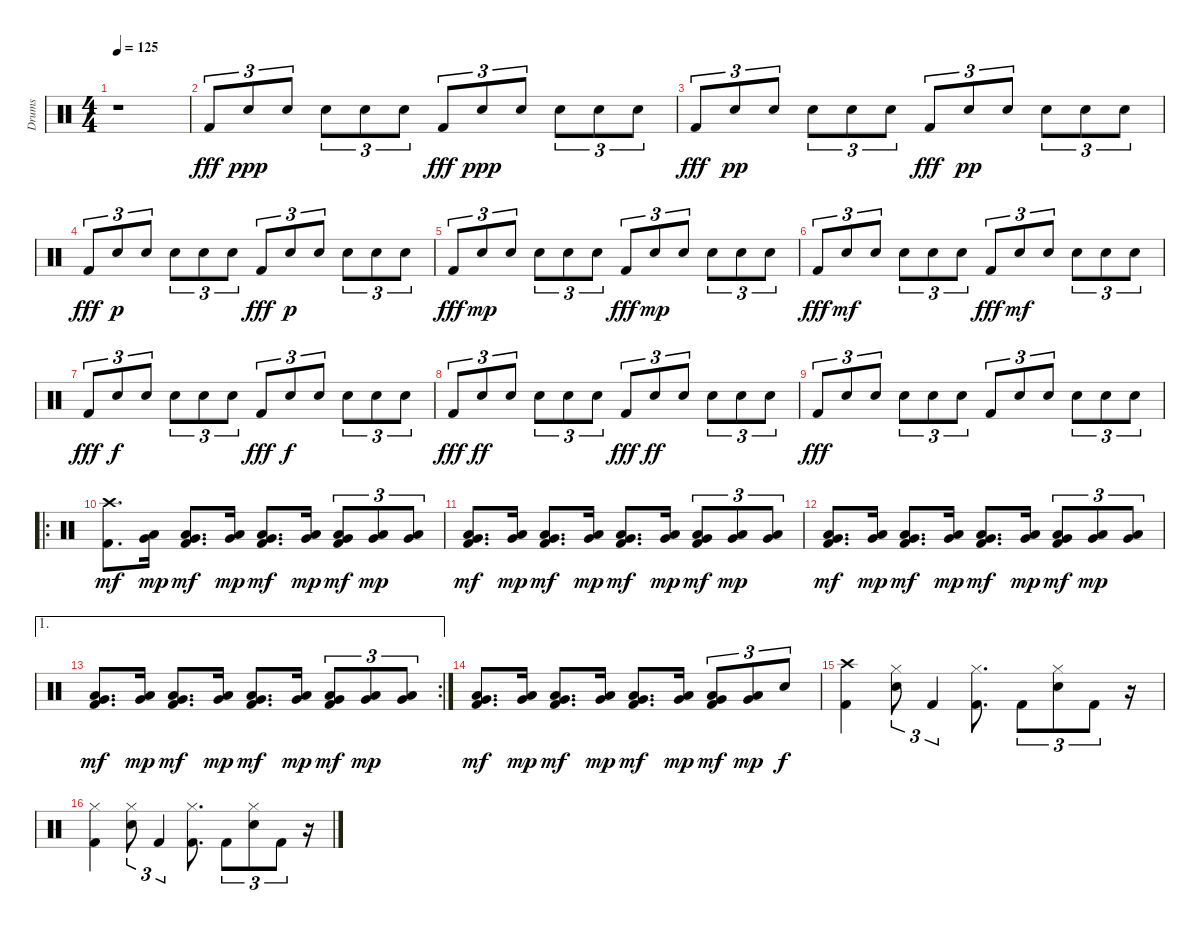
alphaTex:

\track ("Drums" "Drums") {instrument percussion}
\staff {score}
\articulation defaults
\ts (4 4)
\tempo 125
\clef neutral
\ks c
r.1{dy mp} |
"Kick (hit) 2".8{tu (3 2) dy fff volume 13} "Electric Snare (hit)".8{tu (3 2) dy ppp} "Electric Snare (hit)".8{tu (3 2)} "Electric Snare (hit)".8{tu (3 2)} "Electric Snare (hit)".8{tu (3 2)} "Electric Snare (hit)".8{tu (3 2)} "Kick (hit) 2".8{tu (3 2) dy fff} "Electric Snare (hit)".8{tu (3 2) dy ppp} "Electric Snare (hit)".8{tu (3 2)} "Electric Snare (hit)".8{tu (3 2)} "Electric Snare (hit)".8{tu (3 2)} "Electric Snare (hit)".8{tu (3 2)} |
"Kick (hit) 2".8{tu (3 2) dy fff} "Electric Snare (hit)".8{tu (3 2) dy pp} "Electric Snare (hit)".8{tu (3 2)} "Electric Snare (hit)".8{tu (3 2)} "Electric Snare (hit)".8{tu (3 2)} "Electric Snare (hit)".8{tu (3 2)} "Kick (hit) 2".8{tu (3 2) dy fff} "Electric Snare (hit)".8{tu (3 2) dy pp} "Electric Snare (hit)".8{tu (3 2)} "Electric Snare (hit)".8{tu (3 2)} "Electric Snare (hit)".8{tu (3 2)} "Electric Snare (hit)".8{tu (3 2)} |
"Kick (hit) 2".8{tu (3 2) dy fff} "Electric Snare (hit)".8{tu (3 2) dy p} "Electric Snare (hit)".8{tu (3 2)} "Electric Snare (hit)".8{tu (3 2)} "Electric Snare (hit)".8{tu (3 2)} "Electric Snare (hit)".8{tu (3 2)} "Kick (hit) 2".8{tu (3 2) dy fff} "Electric Snare (hit)".8{tu (3 2) dy p} "Electric Snare (hit)".8{tu (3 2)} "Electric Snare (hit)".8{tu (3 2)} "Electric Snare (hit)".8{tu (3 2)} "Electric Snare (hit)".8{tu (3 2)} |
"Kick (hit) 2".8{tu (3 2) dy fff} "Electric Snare (hit)".8{tu (3 2) dy mp} "Electric Snare (hit)".8{tu (3 2)} "Electric Snare (hit)".8{tu (3 2)} "Electric Snare (hit)".8{tu (3 2)} "Electric Snare (hit)".8{tu (3 2)} "Kick (hit) 2".8{tu (3 2) dy fff} "Electric Snare (hit)".8{tu (3 2) dy mp} "Electric Snare (hit)".8{tu (3 2)} "Electric Snare (hit)".8{tu (3 2)} "Electric Snare (hit)".8{tu (3 2)} "Electric Snare (hit)".8{tu (3 2)} |
"Kick (hit) 2".8{tu (3 2) dy fff} "Electric Snare (hit)".8{tu (3 2) dy mf} "Electric Snare (hit)".8{tu (3 2)} "Electric Snare (hit)".8{tu (3 2)} "Electric Snare (hit)".8{tu (3 2)} "Electric Snare (hit)".8{tu (3 2)} "Kick (hit) 2".8{tu (3 2) dy fff} "Electric Snare (hit)".8{tu (3 2) dy mf} "Electric Snare (hit)".8{tu (3 2)} "Electric Snare (hit)".8{tu (3 2)} "Electric Snare (hit)".8{tu (3 2)} "Electric Snare (hit)".8{tu (3 2)} |
"Kick (hit) 2".8{tu (3 2) dy fff} "Electric Snare (hit)".8{tu (3 2) dy f} "Electric Snare (hit)".8{tu (3 2)} "Electric Snare (hit)".8{tu (3 2)} "Electric Snare (hit)".8{tu (3 2)} "Electric Snare (hit)".8{tu (3 2)} "Kick (hit) 2".8{tu (3 2) dy fff} "Electric Snare (hit)".8{tu (3 2) dy f} "Electric Snare (hit)".8{tu (3 2)} "Electric Snare (hit)".8{tu (3 2)} "Electric Snare (hit)".8{tu (3 2)} "Electric Snare (hit)".8{tu (3 2)} |
"Kick (hit) 2".8{tu (3 2) dy fff} "Electric Snare (hit)".8{tu (3 2) dy ff} "Electric Snare (hit)".8{tu (3 2)} "Electric Snare (hit)".8{tu (3 2)} "Electric Snare (hit)".8{tu (3 2)} "Electric Snare (hit)".8{tu (3 2)} "Kick (hit) 2".8{tu (3 2) dy fff} "Electric Snare (hit)".8{tu (3 2) dy ff} "Electric Snare (hit)".8{tu (3 2)} "Electric Snare (hit)".8{tu (3 2)} "Electric Snare (hit)".8{tu (3 2)} "Electric Snare (hit)".8{tu (3 2)} |
"Kick (hit) 2".8{tu (3 2) dy fff} "Electric Snare (hit)".8{tu (3 2)} "Electric Snare (hit)".8{tu (3 2)} "Electric Snare (hit)".8{tu (3 2)} "Electric Snare (hit)".8{tu (3 2)} "Electric Snare (hit)".8{tu (3 2)} "Kick (hit) 2".8{tu (3 2)} "Electric Snare (hit)".8{tu (3 2)} "Electric Snare (hit)".8{tu (3 2)} "Electric Snare (hit)".8{tu (3 2)} "Electric Snare (hit)".8{tu (3 2)} "Electric Snare (hit)".8{tu (3 2)} |
\ro
("Crash high (hit)" "Kick (hit) 2").8{d dy mf} ("Very Low Tom (hit)" "Low Floor Tom (hit)").16{dy mp} ("Very Low Tom (hit)" "Low Floor Tom (hit)" "Kick (hit) 2").8{d dy mf} ("Very Low Tom (hit)" "Low Floor Tom (hit)").16{dy mp} ("Very Low Tom (hit)" "Low Floor Tom (hit)" "Kick (hit) 2").8{d dy mf} ("Very Low Tom (hit)" "Low Floor Tom (hit)").16{dy mp} ("Very Low Tom (hit)" "Low Floor Tom (hit)" "Kick (hit) 2").8{tu (3 2) dy mf} ("Very Low Tom (hit)" "Low Floor Tom (hit)").8{tu (3 2) dy mp} ("Very Low Tom (hit)" "Low Floor Tom (hit)").8{tu (3 2)} |
("Very Low Tom (hit)" "Low Floor Tom (hit)" "Kick (hit) 2").8{d dy mf} ("Very Low Tom (hit)" "Low Floor Tom (hit)").16{dy mp} ("Very Low Tom (hit)" "Low Floor Tom (hit)" "Kick (hit) 2").8{d dy mf} ("Very Low Tom (hit)" "Low Floor Tom (hit)").16{dy mp} ("Very Low Tom (hit)" "Low Floor Tom (hit)" "Kick (hit) 2").8{d dy mf} ("Very Low Tom (hit)" "Low Floor Tom (hit)").16{dy mp} ("Very Low Tom (hit)" "Low Floor Tom (hit)" "Kick (hit) 2").8{tu (3 2) dy mf} ("Very Low Tom (hit)" "Low Floor Tom (hit)").8{tu (3 2) dy mp} ("Very Low Tom (hit)" "Low Floor Tom (hit)").8{tu (3 2)} |
("Very Low Tom (hit)" "Low Floor Tom (hit)" "Kick (hit) 2").8{d dy mf} ("Very Low Tom (hit)" "Low Floor Tom (hit)").16{dy mp} ("Very Low Tom (hit)" "Low Floor Tom (hit)" "Kick (hit) 2").8{d dy mf} ("Very Low Tom (hit)" "Low Floor Tom (hit)").16{dy mp} ("Very Low Tom (hit)" "Low Floor Tom (hit)" "Kick (hit) 2").8{d dy mf} ("Very Low Tom (hit)" "Low Floor Tom (hit)").16{dy mp} ("Very Low Tom (hit)" "Low Floor Tom (hit)" "Kick (hit) 2").8{tu (3 2) dy mf} ("Very Low Tom (hit)" "Low Floor Tom (hit)").8{tu (3 2) dy mp} ("Very Low Tom (hit)" "Low Floor Tom (hit)").8{tu (3 2)} |
\ae 1
\rc 2
("Very Low Tom (hit)" "Low Floor Tom (hit)" "Kick (hit) 2").8{d dy mf} ("Very Low Tom (hit)" "Low Floor Tom (hit)").16{dy mp} ("Very Low Tom (hit)" "Low Floor Tom (hit)" "Kick (hit) 2").8{d dy mf} ("Very Low Tom (hit)" "Low Floor Tom (hit)").16{dy mp} ("Very Low Tom (hit)" "Low Floor Tom (hit)" "Kick (hit) 2").8{d dy mf} ("Very Low Tom (hit)" "Low Floor Tom (hit)").16{dy mp} ("Very Low Tom (hit)" "Low Floor Tom (hit)" "Kick (hit) 2").8{tu (3 2) dy mf} ("Very Low Tom (hit)" "Low Floor Tom (hit)").8{tu (3 2) dy mp} ("Very Low Tom (hit)" "Low Floor Tom (hit)").8{tu (3 2)} |
("Very Low Tom (hit)" "Low Floor Tom (hit)" "Kick (hit) 2").8{d dy mf} ("Very Low Tom (hit)" "Low Floor Tom (hit)").16{dy mp} ("Very Low Tom (hit)" "Low Floor Tom (hit)" "Kick (hit) 2").8{d dy mf} ("Very Low Tom (hit)" "Low Floor Tom (hit)").16{dy mp} ("Very Low Tom (hit)" "Low Floor Tom (hit)" "Kick (hit) 2").8{d dy mf} ("Very Low Tom (hit)" "Low Floor Tom (hit)").16{dy mp} ("Very Low Tom (hit)" "Low Floor Tom (hit)" "Kick (hit) 2").8{tu (3 2) dy mf} ("Very Low Tom (hit)" "Low Floor Tom (hit)").8{tu (3 2) dy mp} "Electric Snare (hit)".8{tu (3 2) dy f} |
("Crash high (hit)" "Kick (hit) 2").4 ("Hi-Hat (closed)" "Electric Snare (hit)").8{tu (3 2)} "Kick (hit) 2".4{tu (3 2)} ("Hi-Hat (closed)" "Kick (hit) 2").8{d} "Kick (hit) 2".8{tu (3 2)} ("Hi-Hat (closed)" "Electric Snare (hit)").8{tu (3 2)} "Kick (hit) 2".8{tu (3 2)} r.16 |
("Hi-Hat (closed)" "Kick (hit) 2").4 ("Hi-Hat (closed)" "Electric Snare (hit)").8{tu (3 2)} "Kick (hit) 2".4{tu (3 2)} ("Hi-Hat (closed)" "Kick (hit) 2").8{d} "Kick (hit) 2".8{tu (3 2)} ("Hi-Hat (closed)" "Electric Snare (hit)").8{tu (3 2)} "Kick (hit) 2".8{tu (3 2)} r.16
